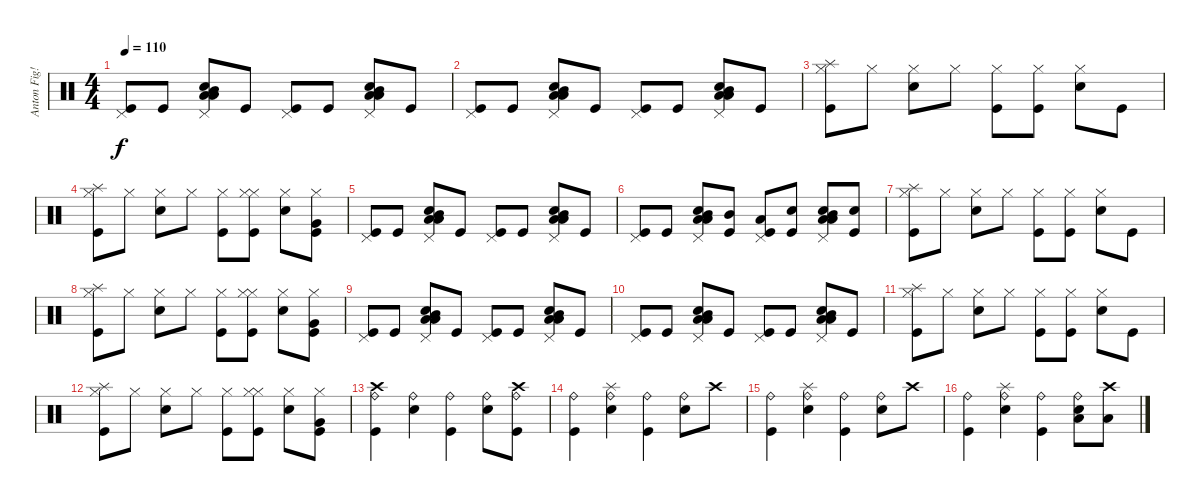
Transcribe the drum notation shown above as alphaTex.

\track ("Anton Fig!?!" "Anton Fig!") {instrument percussion}
\staff {score}
\articulation defaults
\ts (4 4)
\tempo 110
\clef neutral
\ks c
("Kick (hit)" "Pedal Hi-Hat (hit)").8{dy f} "Kick (hit)".8 ("Low Tom (hit)" "Mid Tom (hit)" "Low Floor Tom (hit)" "Electric Snare (hit)" "Pedal Hi-Hat (hit)").8 "Kick (hit)".8 ("Kick (hit)" "Pedal Hi-Hat (hit)").8 "Kick (hit)".8 ("Low Tom (hit)" "Mid Tom (hit)" "Low Floor Tom (hit)" "Electric Snare (hit)" "Pedal Hi-Hat (hit)").8 "Kick (hit)".8 |
("Kick (hit)" "Pedal Hi-Hat (hit)").8 "Kick (hit)".8 ("Low Tom (hit)" "Mid Tom (hit)" "Low Floor Tom (hit)" "Electric Snare (hit)" "Pedal Hi-Hat (hit)").8 "Kick (hit)".8 ("Kick (hit)" "Pedal Hi-Hat (hit)").8 "Kick (hit)".8 ("Low Tom (hit)" "Mid Tom (hit)" "Low Floor Tom (hit)" "Electric Snare (hit)" "Pedal Hi-Hat (hit)").8 "Kick (hit)".8 |
("Hi-Hat (closed)" "Splash (hit)" "Kick (hit)").8 "Hi-Hat (closed)".8 ("Hi-Hat (closed)" "Electric Snare (hit)").8 "Hi-Hat (closed)".8 ("Hi-Hat (closed)" "Kick (hit)").8 ("Hi-Hat (closed)" "Kick (hit)").8 ("Hi-Hat (closed)" "Electric Snare (hit)").8 "Kick (hit)".8 |
("Hi-Hat (closed)" "Splash (hit)" "Kick (hit)").8 "Hi-Hat (closed)".8 ("Hi-Hat (closed)" "Electric Snare (hit)").8 "Hi-Hat (closed)".8 ("Hi-Hat (closed)" "Kick (hit)").8 ("Hi-Hat (closed)" "Hi-Hat (closed)" "Kick (hit)").8 ("Hi-Hat (closed)" "Electric Snare (hit)").8 ("Hi-Hat (closed)" "Very Low Tom (hit)" "Kick (hit)").8 |
("Kick (hit)" "Pedal Hi-Hat (hit)").8 "Kick (hit)".8 ("Low Tom (hit)" "Mid Tom (hit)" "Low Floor Tom (hit)" "Electric Snare (hit)" "Pedal Hi-Hat (hit)").8 "Kick (hit)".8 ("Kick (hit)" "Pedal Hi-Hat (hit)").8 "Kick (hit)".8 ("Low Tom (hit)" "Mid Tom (hit)" "Low Floor Tom (hit)" "Electric Snare (hit)" "Pedal Hi-Hat (hit)").8 "Kick (hit)".8 |
("Kick (hit)" "Pedal Hi-Hat (hit)").8 "Kick (hit)".8 ("Low Tom (hit)" "Mid Tom (hit)" "Low Floor Tom (hit)" "Electric Snare (hit)" "Pedal Hi-Hat (hit)").8 ("Mid Tom (hit)" "Kick (hit)").8 ("Low Floor Tom (hit)" "Kick (hit)" "Pedal Hi-Hat (hit)").8 ("Electric Snare (hit)" "Kick (hit)").8 ("Low Tom (hit)" "Mid Tom (hit)" "Low Floor Tom (hit)" "Electric Snare (hit)" "Pedal Hi-Hat (hit)").8 ("Electric Snare (hit)" "Kick (hit)").8 |
("Hi-Hat (closed)" "Splash (hit)" "Kick (hit)").8 "Hi-Hat (closed)".8 ("Hi-Hat (closed)" "Electric Snare (hit)").8 "Hi-Hat (closed)".8 ("Hi-Hat (closed)" "Kick (hit)").8 ("Hi-Hat (closed)" "Kick (hit)").8 ("Hi-Hat (closed)" "Electric Snare (hit)").8 "Kick (hit)".8 |
("Hi-Hat (closed)" "Splash (hit)" "Kick (hit)").8 "Hi-Hat (closed)".8 ("Hi-Hat (closed)" "Electric Snare (hit)").8 "Hi-Hat (closed)".8 ("Hi-Hat (closed)" "Kick (hit)").8 ("Hi-Hat (closed)" "Hi-Hat (closed)" "Kick (hit)").8 ("Hi-Hat (closed)" "Electric Snare (hit)").8 ("Hi-Hat (closed)" "Very Low Tom (hit)" "Kick (hit)").8 |
("Kick (hit)" "Pedal Hi-Hat (hit)").8 "Kick (hit)".8 ("Low Tom (hit)" "Mid Tom (hit)" "Low Floor Tom (hit)" "Electric Snare (hit)" "Pedal Hi-Hat (hit)").8 "Kick (hit)".8 ("Kick (hit)" "Pedal Hi-Hat (hit)").8 "Kick (hit)".8 ("Low Tom (hit)" "Mid Tom (hit)" "Low Floor Tom (hit)" "Electric Snare (hit)" "Pedal Hi-Hat (hit)").8 "Kick (hit)".8 |
("Kick (hit)" "Pedal Hi-Hat (hit)").8 "Kick (hit)".8 ("Low Tom (hit)" "Mid Tom (hit)" "Low Floor Tom (hit)" "Electric Snare (hit)" "Pedal Hi-Hat (hit)").8 "Kick (hit)".8 ("Kick (hit)" "Pedal Hi-Hat (hit)").8 "Kick (hit)".8 ("Low Tom (hit)" "Mid Tom (hit)" "Low Floor Tom (hit)" "Electric Snare (hit)" "Pedal Hi-Hat (hit)").8 "Kick (hit)".8 |
("Hi-Hat (closed)" "Splash (hit)" "Kick (hit)").8 "Hi-Hat (closed)".8 ("Hi-Hat (closed)" "Electric Snare (hit)").8 "Hi-Hat (closed)".8 ("Hi-Hat (closed)" "Kick (hit)").8 ("Hi-Hat (closed)" "Kick (hit)").8 ("Hi-Hat (closed)" "Electric Snare (hit)").8 "Kick (hit)".8 |
("Hi-Hat (closed)" "Splash (hit)" "Kick (hit)").8 "Hi-Hat (closed)".8 ("Hi-Hat (closed)" "Electric Snare (hit)").8 "Hi-Hat (closed)".8 ("Hi-Hat (closed)" "Kick (hit)").8 ("Hi-Hat (closed)" "Hi-Hat (closed)" "Kick (hit)").8 ("Hi-Hat (closed)" "Electric Snare (hit)").8 ("Hi-Hat (closed)" "Very Low Tom (hit)" "Kick (hit)").8 |
("Ride (bell)" "Crash high (hit)" "Kick (hit)").4 ("Ride (bell)" "Electric Snare (hit)").4 ("Ride (bell)" "Kick (hit)").4 ("Ride (bell)" "Electric Snare (hit)").8 ("Ride (bell)" "Crash high (hit)" "Kick (hit)").8 |
("Ride (bell)" "Kick (hit)").4 ("Ride (bell)" "Splash (hit)" "Electric Snare (hit)").4 ("Ride (bell)" "Kick (hit)").4 ("Ride (bell)" "Electric Snare (hit)").8 "Crash high (hit)".8 |
("Ride (bell)" "Kick (hit)").4 ("Ride (bell)" "Splash (hit)" "Electric Snare (hit)").4 ("Ride (bell)" "Kick (hit)").4 ("Ride (bell)" "Electric Snare (hit)").8 "Crash high (hit)".8 |
("Ride (bell)" "Kick (hit)").4 ("Ride (bell)" "Splash (hit)" "Electric Snare (hit)").4 ("Ride (bell)" "Kick (hit)").4 ("Ride (bell)" "Low Floor Tom (hit)" "Electric Snare (hit)").8 ("Crash high (hit)" "Low Floor Tom (hit)").8
